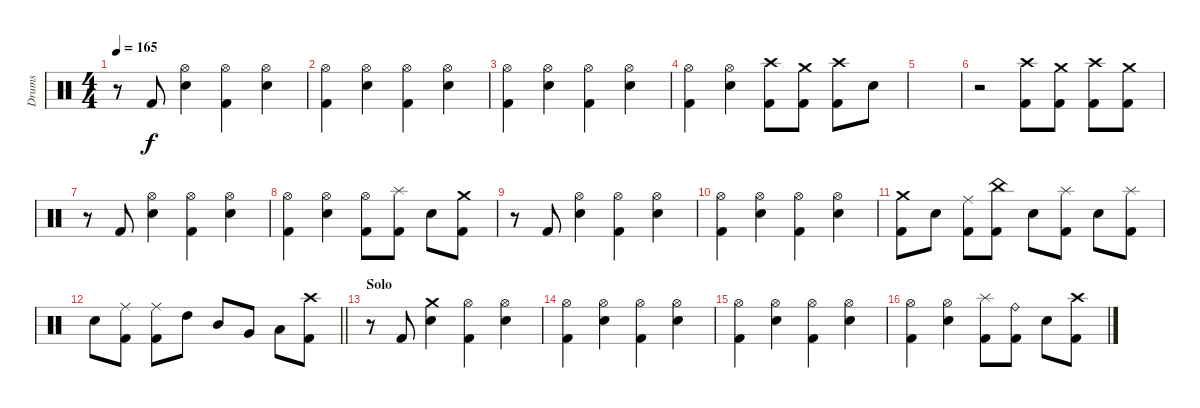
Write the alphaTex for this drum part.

\track ("Drums" "Drums") {instrument percussion}
\staff {score}
\articulation defaults
\ts (4 4)
\tempo 165
\clef neutral
\ks c
r.8{dy f} "Kick (hit) 2".8 ("Hi-Hat (open)" "Electric Snare (hit)").4 ("Hi-Hat (open)" "Kick (hit) 2").4 ("Hi-Hat (open)" "Electric Snare (hit)").4 |
("Hi-Hat (open)" "Kick (hit) 2").4 ("Hi-Hat (open)" "Electric Snare (hit)").4 ("Hi-Hat (open)" "Kick (hit) 2").4 ("Hi-Hat (open)" "Electric Snare (hit)").4 |
("Hi-Hat (open)" "Kick (hit) 2").4 ("Hi-Hat (open)" "Electric Snare (hit)").4 ("Hi-Hat (open)" "Kick (hit) 2").4 ("Hi-Hat (open)" "Electric Snare (hit)").4 |
("Hi-Hat (open)" "Kick (hit) 2").4 ("Hi-Hat (open)" "Electric Snare (hit)").4 ("Crash high (hit)" "Kick (hit) 2").8 ("Crash medium (hit)" "Kick (hit) 2").8 ("Crash high (hit)" "Kick (hit) 2").8 "Electric Snare (hit)".8 |
|
r.2 ("Crash high (hit)" "Kick (hit) 2").8 ("Crash medium (hit)" "Kick (hit) 2").8 ("Crash high (hit)" "Kick (hit) 2").8 ("Crash medium (hit)" "Kick (hit) 2").8 |
r.8 "Kick (hit) 2".8 ("Hi-Hat (open)" "Electric Snare (hit)").4 ("Hi-Hat (open)" "Kick (hit) 2").4 ("Hi-Hat (open)" "Electric Snare (hit)").4 |
("Hi-Hat (open)" "Kick (hit) 2").4 ("Hi-Hat (open)" "Electric Snare (hit)").4 ("Hi-Hat (open)" "Kick (hit) 2").8 ("Splash (hit)" "Kick (hit) 2").8 "Electric Snare (hit)".8 ("Crash medium (hit)" "Kick (hit) 2").8 |
r.8 "Kick (hit) 2".8 ("Hi-Hat (open)" "Electric Snare (hit)").4 ("Hi-Hat (open)" "Kick (hit) 2").4 ("Hi-Hat (open)" "Electric Snare (hit)").4 |
("Hi-Hat (open)" "Kick (hit) 2").4 ("Hi-Hat (open)" "Electric Snare (hit)").4 ("Hi-Hat (open)" "Kick (hit) 2").4 ("Hi-Hat (open)" "Electric Snare (hit)").4 |
("Crash medium (hit)" "Kick (hit) 2").8 "Electric Snare (hit)".8 ("Ride (middle)" "Kick (hit) 2").8 ("China (hit)" "Kick (hit) 2").8 "Electric Snare (hit)".8 ("Splash (hit)" "Kick (hit) 2").8 "Electric Snare (hit)".8 ("Splash (hit)" "Kick (hit) 2").8 |
\barLineRight lightlight "Electric Snare (hit)".8
("Ride (middle)" "Kick (hit) 2").8 ("Ride (middle)" "Kick (hit) 2").8 "High Tom (hit)".8 "Mid Tom (hit)".8 "Very Low Tom (hit)".8 "Low Floor Tom (hit)".8 ("Crash high (hit)" "Kick (hit) 2").8 |
\section ("" "Solo")
r.8 "Kick (hit) 2".8 ("Crash medium (hit)" "Electric Snare (hit)").4 ("Hi-Hat (open)" "Kick (hit) 2").4 ("Hi-Hat (open)" "Electric Snare (hit)").4 |
("Hi-Hat (open)" "Kick (hit) 2").4 ("Hi-Hat (open)" "Electric Snare (hit)").4 ("Hi-Hat (open)" "Kick (hit) 2").4 ("Hi-Hat (open)" "Electric Snare (hit)").4 |
("Hi-Hat (open)" "Kick (hit) 2").4 ("Hi-Hat (open)" "Electric Snare (hit)").4 ("Hi-Hat (open)" "Kick (hit) 2").4 ("Hi-Hat (open)" "Electric Snare (hit)").4 |
("Hi-Hat (open)" "Kick (hit) 2").4 ("Hi-Hat (open)" "Electric Snare (hit)").4 ("Splash (hit)" "Kick (hit) 2").8 ("Ride (bell)" "Kick (hit) 2").8 "Electric Snare (hit)".8 ("Crash high (hit)" "Kick (hit) 2").8
